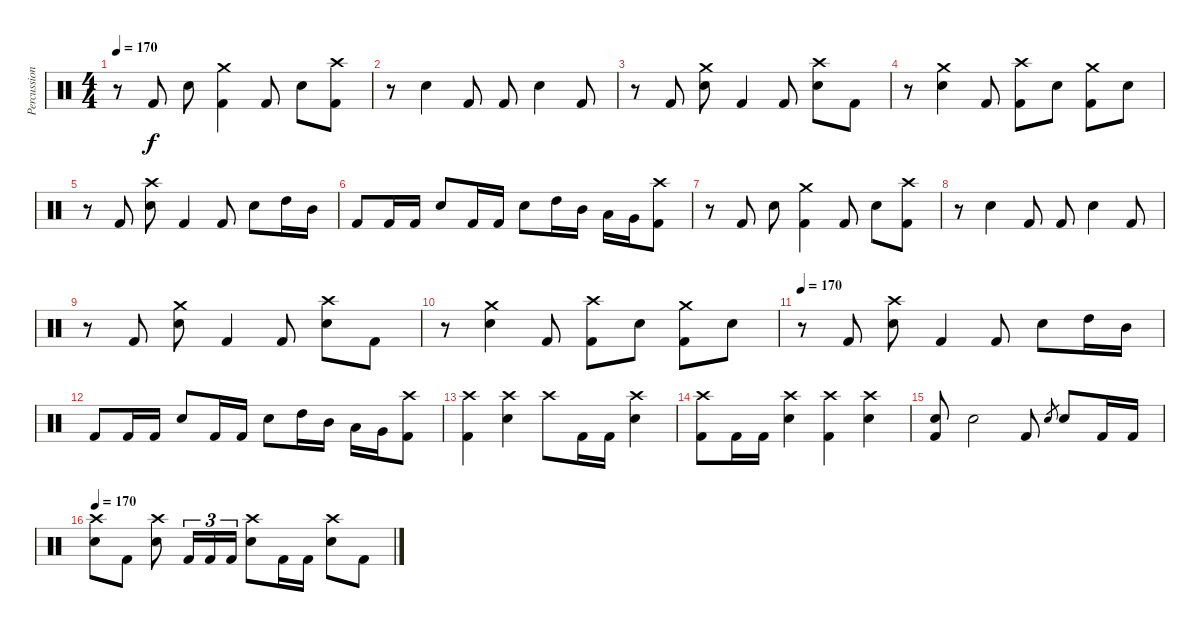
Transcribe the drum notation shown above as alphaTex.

\track ("Percussion" "Percussion") {instrument percussion}
\staff {score}
\articulation defaults
\ts (4 4)
\tempo 170
\clef neutral
\ks c
r.8{dy f} "Kick (hit) 2".8 "Electric Snare (hit)".8 ("Crash medium (hit)" "Kick (hit) 2").4 "Kick (hit) 2".8 "Electric Snare (hit)".8 ("Crash high (hit)" "Kick (hit) 2").8 |
r.8 "Electric Snare (hit)".4 "Kick (hit) 2".8 "Kick (hit) 2".8 "Electric Snare (hit)".4 "Kick (hit) 2".8 |
r.8 "Kick (hit) 2".8 ("Crash medium (hit)" "Electric Snare (hit)").8 "Kick (hit) 2".4 "Kick (hit) 2".8 ("Crash high (hit)" "Electric Snare (hit)").8 "Kick (hit) 2".8 |
r.8 ("Crash medium (hit)" "Electric Snare (hit)").4 "Kick (hit) 2".8 ("Crash high (hit)" "Kick (hit) 2").8 "Electric Snare (hit)".8 ("Crash medium (hit)" "Kick (hit) 2").8 "Electric Snare (hit)".8 |
r.8 "Kick (hit) 2".8 ("Crash high (hit)" "Electric Snare (hit)").8 "Kick (hit) 2".4 "Kick (hit) 2".8 "Electric Snare (hit)".8 "High Tom (hit)".16 "Mid Tom (hit)".16 |
"Kick (hit) 2".8 "Kick (hit) 2".16 "Kick (hit) 2".16 "Electric Snare (hit)".8 "Kick (hit) 2".16 "Kick (hit) 2".16 "Electric Snare (hit)".8 "High Tom (hit)".16 "Mid Tom (hit)".16 "Low Tom (hit)".16 "Very Low Tom (hit)".16 ("Crash high (hit)" "Kick (hit) 2").8 |
r.8 "Kick (hit) 2".8 "Electric Snare (hit)".8 ("Crash medium (hit)" "Kick (hit) 2").4 "Kick (hit) 2".8 "Electric Snare (hit)".8 ("Crash high (hit)" "Kick (hit) 2").8 |
r.8 "Electric Snare (hit)".4 "Kick (hit) 2".8 "Kick (hit) 2".8 "Electric Snare (hit)".4 "Kick (hit) 2".8 |
r.8 "Kick (hit) 2".8 ("Crash medium (hit)" "Electric Snare (hit)").8 "Kick (hit) 2".4 "Kick (hit) 2".8 ("Crash high (hit)" "Electric Snare (hit)").8 "Kick (hit) 2".8 |
r.8 ("Crash medium (hit)" "Electric Snare (hit)").4 "Kick (hit) 2".8 ("Crash high (hit)" "Kick (hit) 2").8 "Electric Snare (hit)".8 ("Crash medium (hit)" "Kick (hit) 2").8 "Electric Snare (hit)".8 |
\tempo 170
r.8 "Kick (hit) 2".8 ("Crash high (hit)" "Electric Snare (hit)").8 "Kick (hit) 2".4 "Kick (hit) 2".8 "Electric Snare (hit)".8 "High Tom (hit)".16 "Mid Tom (hit)".16 |
"Kick (hit) 2".8 "Kick (hit) 2".16 "Kick (hit) 2".16 "Electric Snare (hit)".8 "Kick (hit) 2".16 "Kick (hit) 2".16 "Electric Snare (hit)".8 "High Tom (hit)".16 "Mid Tom (hit)".16 "Low Tom (hit)".16 "Very Low Tom (hit)".16 ("Crash high (hit)" "Kick (hit) 2").8 |
("Crash high (hit)" "Kick (hit) 2").4 ("Crash high (hit)" "Electric Snare (hit)").4 "Crash high (hit)".8 "Kick (hit) 2".16 "Kick (hit) 2".16 ("Crash high (hit)" "Electric Snare (hit)").4 |
("Crash high (hit)" "Kick (hit) 2").8 "Kick (hit) 2".16 "Kick (hit) 2".16 ("Crash high (hit)" "Electric Snare (hit)").4 ("Crash high (hit)" "Kick (hit) 2").4 ("Crash high (hit)" "Electric Snare (hit)").4 |
("Electric Snare (hit)" "Kick (hit) 2").8 "Electric Snare (hit)".2 "Kick (hit) 2".8 "Electric Snare (hit)".8{gr} "Electric Snare (hit)".8 "Kick (hit) 2".16 "Kick (hit) 2".16 |
\tempo 170
("Crash high (hit)" "Electric Snare (hit)").8 "Kick (hit) 2".8 ("Crash high (hit)" "Electric Snare (hit)").8 "Kick (hit) 2".16{tu (3 2)} "Kick (hit) 2".16{tu (3 2)} "Kick (hit) 2".16{tu (3 2)} ("Crash high (hit)" "Electric Snare (hit)").8 "Kick (hit) 2".16 "Kick (hit) 2".16 ("Crash high (hit)" "Electric Snare (hit)").8 "Kick (hit) 2".8
